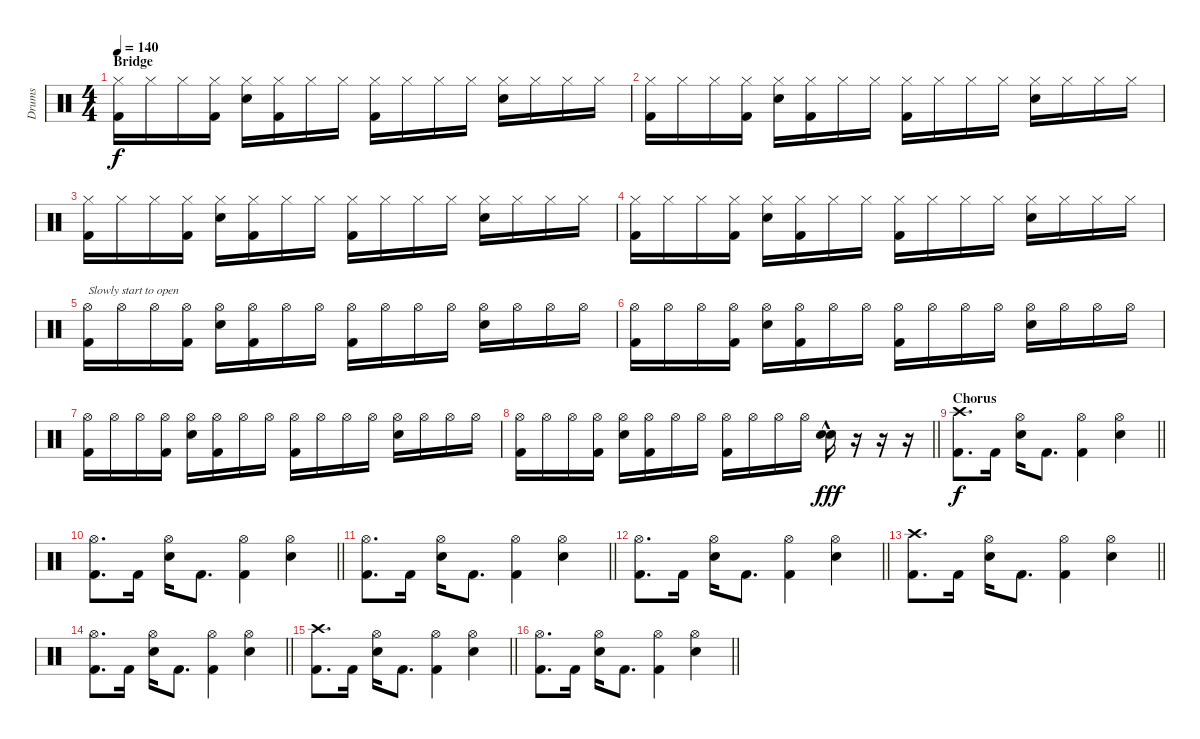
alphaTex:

\track ("Drums" "Drums") {instrument percussion}
\staff {score}
\articulation defaults
\ts (4 4)
\section ("" "Bridge")
\tempo 140
\clef neutral
\ks c
("Hi-Hat (closed)" "Kick (hit) 2").16{dy f} "Hi-Hat (closed)".16 "Hi-Hat (closed)".16 ("Hi-Hat (closed)" "Kick (hit) 2").16 ("Hi-Hat (closed)" "Electric Snare (hit)").16 ("Hi-Hat (closed)" "Kick (hit) 2").16 "Hi-Hat (closed)".16 "Hi-Hat (closed)".16 ("Hi-Hat (closed)" "Kick (hit) 2").16 "Hi-Hat (closed)".16 "Hi-Hat (closed)".16 "Hi-Hat (closed)".16 ("Hi-Hat (closed)" "Electric Snare (hit)").16 "Hi-Hat (closed)".16 "Hi-Hat (closed)".16 "Hi-Hat (closed)".16 |
("Hi-Hat (closed)" "Kick (hit) 2").16 "Hi-Hat (closed)".16 "Hi-Hat (closed)".16 ("Hi-Hat (closed)" "Kick (hit) 2").16 ("Hi-Hat (closed)" "Electric Snare (hit)").16 ("Hi-Hat (closed)" "Kick (hit) 2").16 "Hi-Hat (closed)".16 "Hi-Hat (closed)".16 ("Hi-Hat (closed)" "Kick (hit) 2").16 "Hi-Hat (closed)".16 "Hi-Hat (closed)".16 "Hi-Hat (closed)".16 ("Hi-Hat (closed)" "Electric Snare (hit)").16 "Hi-Hat (closed)".16 "Hi-Hat (closed)".16 "Hi-Hat (closed)".16 |
("Hi-Hat (closed)" "Kick (hit) 2").16 "Hi-Hat (closed)".16 "Hi-Hat (closed)".16 ("Hi-Hat (closed)" "Kick (hit) 2").16 ("Hi-Hat (closed)" "Electric Snare (hit)").16 ("Hi-Hat (closed)" "Kick (hit) 2").16 "Hi-Hat (closed)".16 "Hi-Hat (closed)".16 ("Hi-Hat (closed)" "Kick (hit) 2").16 "Hi-Hat (closed)".16 "Hi-Hat (closed)".16 "Hi-Hat (closed)".16 ("Hi-Hat (closed)" "Electric Snare (hit)").16 "Hi-Hat (closed)".16 "Hi-Hat (closed)".16 "Hi-Hat (closed)".16 |
("Hi-Hat (closed)" "Kick (hit) 2").16 "Hi-Hat (closed)".16 "Hi-Hat (closed)".16 ("Hi-Hat (closed)" "Kick (hit) 2").16 ("Hi-Hat (closed)" "Electric Snare (hit)").16 ("Hi-Hat (closed)" "Kick (hit) 2").16 "Hi-Hat (closed)".16 "Hi-Hat (closed)".16 ("Hi-Hat (closed)" "Kick (hit) 2").16 "Hi-Hat (closed)".16 "Hi-Hat (closed)".16 "Hi-Hat (closed)".16 ("Hi-Hat (closed)" "Electric Snare (hit)").16 "Hi-Hat (closed)".16 "Hi-Hat (closed)".16 "Hi-Hat (closed)".16 |
("Hi-Hat (open)" "Kick (hit) 2").16{txt "Slowly start to open"} "Hi-Hat (open)".16 "Hi-Hat (open)".16 ("Hi-Hat (open)" "Kick (hit) 2").16 ("Hi-Hat (open)" "Electric Snare (hit)").16 ("Hi-Hat (open)" "Kick (hit) 2").16 "Hi-Hat (open)".16 "Hi-Hat (open)".16 ("Hi-Hat (open)" "Kick (hit) 2").16 "Hi-Hat (open)".16 "Hi-Hat (open)".16 "Hi-Hat (open)".16 ("Hi-Hat (open)" "Electric Snare (hit)").16 "Hi-Hat (open)".16 "Hi-Hat (open)".16 "Hi-Hat (open)".16 |
("Hi-Hat (open)" "Kick (hit) 2").16 "Hi-Hat (open)".16 "Hi-Hat (open)".16 ("Hi-Hat (open)" "Kick (hit) 2").16 ("Hi-Hat (open)" "Electric Snare (hit)").16 ("Hi-Hat (open)" "Kick (hit) 2").16 "Hi-Hat (open)".16 "Hi-Hat (open)".16 ("Hi-Hat (open)" "Kick (hit) 2").16 "Hi-Hat (open)".16 "Hi-Hat (open)".16 "Hi-Hat (open)".16 ("Hi-Hat (open)" "Electric Snare (hit)").16 "Hi-Hat (open)".16 "Hi-Hat (open)".16 "Hi-Hat (open)".16 |
("Hi-Hat (open)" "Kick (hit) 2").16 "Hi-Hat (open)".16 "Hi-Hat (open)".16 ("Hi-Hat (open)" "Kick (hit) 2").16 ("Hi-Hat (open)" "Electric Snare (hit)").16 ("Hi-Hat (open)" "Kick (hit) 2").16 "Hi-Hat (open)".16 "Hi-Hat (open)".16 ("Hi-Hat (open)" "Kick (hit) 2").16 "Hi-Hat (open)".16 "Hi-Hat (open)".16 "Hi-Hat (open)".16 ("Hi-Hat (open)" "Electric Snare (hit)").16 "Hi-Hat (open)".16 "Hi-Hat (open)".16 "Hi-Hat (open)".16 |
\barLineRight lightlight
("Hi-Hat (open)" "Kick (hit) 2").16 "Hi-Hat (open)".16 "Hi-Hat (open)".16 ("Hi-Hat (open)" "Kick (hit) 2").16 ("Hi-Hat (open)" "Electric Snare (hit)").16 ("Hi-Hat (open)" "Kick (hit) 2").16 "Hi-Hat (open)".16 "Hi-Hat (open)".16 ("Hi-Hat (open)" "Kick (hit) 2").16 "Hi-Hat (open)".16 "Hi-Hat (open)".16 "Hi-Hat (open)".16 ("Snare (hit) 2" "Electric Snare (hit)"{hac}).16{dy fff} r.16 r.16 r.16 |
\section ("" "Chorus")
\barLineRight lightlight
("Crash high (hit)" "Kick (hit) 2").8{d dy f} "Kick (hit) 2".16 ("Electric Snare (hit)" "Hi-Hat (open)").16 "Kick (hit) 2".8{d} ("Hi-Hat (open)" "Kick (hit) 2").4 ("Hi-Hat (open)" "Snare (hit) 2").4 |
\barLineRight lightlight
("Hi-Hat (open)" "Kick (hit) 2").8{d} "Kick (hit) 2".16 ("Electric Snare (hit)" "Hi-Hat (open)").16 "Kick (hit) 2".8{d} ("Hi-Hat (open)" "Kick (hit) 2").4 ("Hi-Hat (open)" "Snare (hit) 2").4 |
\barLineRight lightlight
("Hi-Hat (open)" "Kick (hit) 2").8{d} "Kick (hit) 2".16 ("Electric Snare (hit)" "Hi-Hat (open)").16 "Kick (hit) 2".8{d} ("Hi-Hat (open)" "Kick (hit) 2").4 ("Hi-Hat (open)" "Snare (hit) 2").4 |
\barLineRight lightlight
("Hi-Hat (open)" "Kick (hit) 2").8{d} "Kick (hit) 2".16 ("Electric Snare (hit)" "Hi-Hat (open)").16 "Kick (hit) 2".8{d} ("Hi-Hat (open)" "Kick (hit) 2").4 ("Hi-Hat (open)" "Snare (hit) 2").4 |
\barLineRight lightlight
("Crash high (hit)" "Kick (hit) 2").8{d} "Kick (hit) 2".16 ("Electric Snare (hit)" "Hi-Hat (open)").16 "Kick (hit) 2".8{d} ("Hi-Hat (open)" "Kick (hit) 2").4 ("Hi-Hat (open)" "Snare (hit) 2").4 |
\barLineRight lightlight
("Hi-Hat (open)" "Kick (hit) 2").8{d} "Kick (hit) 2".16 ("Electric Snare (hit)" "Hi-Hat (open)").16 "Kick (hit) 2".8{d} ("Hi-Hat (open)" "Kick (hit) 2").4 ("Hi-Hat (open)" "Snare (hit) 2").4 |
\barLineRight lightlight
("Crash high (hit)" "Kick (hit) 2").8{d} "Kick (hit) 2".16 ("Electric Snare (hit)" "Hi-Hat (open)").16 "Kick (hit) 2".8{d} ("Hi-Hat (open)" "Kick (hit) 2").4 ("Hi-Hat (open)" "Snare (hit) 2").4 |
\barLineRight lightlight
("Hi-Hat (open)" "Kick (hit) 2").8{d} "Kick (hit) 2".16 ("Electric Snare (hit)" "Hi-Hat (open)").16 "Kick (hit) 2".8{d} ("Hi-Hat (open)" "Kick (hit) 2").4 ("Hi-Hat (open)" "Snare (hit) 2").4
